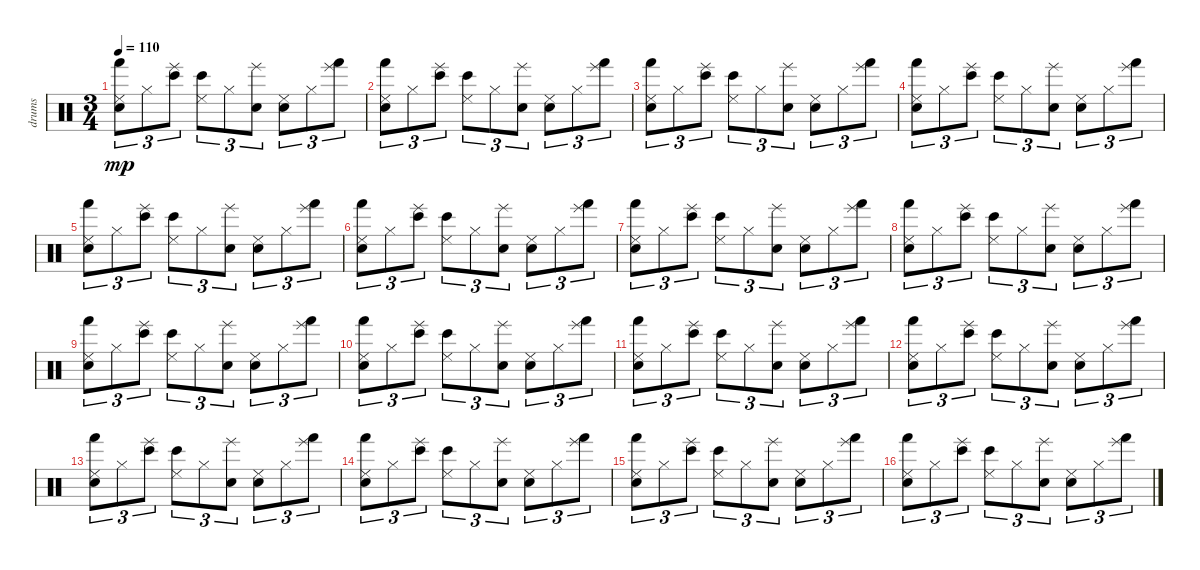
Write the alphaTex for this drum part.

\track ("drums" "drums") {instrument percussion}
\staff {score}
\articulation defaults
\ts (3 4)
\tempo 110
\clef neutral
\ks c
("Snare (hit)" "Hand (hit)" "Cowbell low (tip)").8{tu (3 2) dy mp} "Cowbell high (tip)".8{tu (3 2)} ("Bongo High (hit)" "Hand (slap)").8{tu (3 2)} ("Bongo High (hit)" "Cowbell low (tip)").8{tu (3 2)} "Cowbell high (tip)".8{tu (3 2)} ("Electric Snare (hit)" "Hand (slap)").8{tu (3 2)} ("Electric Snare (hit)" "Cowbell low (tip)").8{tu (3 2)} "Cowbell high (tip)".8{tu (3 2)} ("Hand (hit)" "Hand (slap)").8{tu (3 2)} |
("Snare (hit)" "Hand (hit)" "Cowbell low (tip)").8{tu (3 2)} "Cowbell high (tip)".8{tu (3 2)} ("Bongo High (hit)" "Hand (slap)").8{tu (3 2)} ("Bongo High (hit)" "Cowbell low (tip)").8{tu (3 2)} "Cowbell high (tip)".8{tu (3 2)} ("Electric Snare (hit)" "Hand (slap)").8{tu (3 2)} ("Electric Snare (hit)" "Cowbell low (tip)").8{tu (3 2)} "Cowbell high (tip)".8{tu (3 2)} ("Hand (hit)" "Hand (slap)").8{tu (3 2)} |
("Snare (hit)" "Hand (hit)" "Cowbell low (tip)").8{tu (3 2)} "Cowbell high (tip)".8{tu (3 2)} ("Bongo High (hit)" "Hand (slap)").8{tu (3 2)} ("Bongo High (hit)" "Cowbell low (tip)").8{tu (3 2)} "Cowbell high (tip)".8{tu (3 2)} ("Electric Snare (hit)" "Hand (slap)").8{tu (3 2)} ("Electric Snare (hit)" "Cowbell low (tip)").8{tu (3 2)} "Cowbell high (tip)".8{tu (3 2)} ("Hand (hit)" "Hand (slap)").8{tu (3 2)} |
("Snare (hit)" "Hand (hit)" "Cowbell low (tip)").8{tu (3 2)} "Cowbell high (tip)".8{tu (3 2)} ("Bongo High (hit)" "Hand (slap)").8{tu (3 2)} ("Bongo High (hit)" "Cowbell low (tip)").8{tu (3 2)} "Cowbell high (tip)".8{tu (3 2)} ("Electric Snare (hit)" "Hand (slap)").8{tu (3 2)} ("Electric Snare (hit)" "Cowbell low (tip)").8{tu (3 2)} "Cowbell high (tip)".8{tu (3 2)} ("Hand (hit)" "Hand (slap)").8{tu (3 2)} |
("Snare (hit)" "Hand (hit)" "Cowbell low (tip)").8{tu (3 2)} "Cowbell high (tip)".8{tu (3 2)} ("Bongo High (hit)" "Hand (slap)").8{tu (3 2)} ("Bongo High (hit)" "Cowbell low (tip)").8{tu (3 2)} "Cowbell high (tip)".8{tu (3 2)} ("Electric Snare (hit)" "Hand (slap)").8{tu (3 2)} ("Electric Snare (hit)" "Cowbell low (tip)").8{tu (3 2)} "Cowbell high (tip)".8{tu (3 2)} ("Hand (hit)" "Hand (slap)").8{tu (3 2)} |
("Snare (hit)" "Hand (hit)" "Cowbell low (tip)").8{tu (3 2)} "Cowbell high (tip)".8{tu (3 2)} ("Bongo High (hit)" "Hand (slap)").8{tu (3 2)} ("Bongo High (hit)" "Cowbell low (tip)").8{tu (3 2)} "Cowbell high (tip)".8{tu (3 2)} ("Electric Snare (hit)" "Hand (slap)").8{tu (3 2)} ("Electric Snare (hit)" "Cowbell low (tip)").8{tu (3 2)} "Cowbell high (tip)".8{tu (3 2)} ("Hand (hit)" "Hand (slap)").8{tu (3 2)} |
("Snare (hit)" "Hand (hit)" "Cowbell low (tip)").8{tu (3 2)} "Cowbell high (tip)".8{tu (3 2)} ("Bongo High (hit)" "Hand (slap)").8{tu (3 2)} ("Bongo High (hit)" "Cowbell low (tip)").8{tu (3 2)} "Cowbell high (tip)".8{tu (3 2)} ("Electric Snare (hit)" "Hand (slap)").8{tu (3 2)} ("Electric Snare (hit)" "Cowbell low (tip)").8{tu (3 2)} "Cowbell high (tip)".8{tu (3 2)} ("Hand (hit)" "Hand (slap)").8{tu (3 2)} |
("Snare (hit)" "Hand (hit)" "Cowbell low (tip)").8{tu (3 2)} "Cowbell high (tip)".8{tu (3 2)} ("Bongo High (hit)" "Hand (slap)").8{tu (3 2)} ("Bongo High (hit)" "Cowbell low (tip)").8{tu (3 2)} "Cowbell high (tip)".8{tu (3 2)} ("Electric Snare (hit)" "Hand (slap)").8{tu (3 2)} ("Electric Snare (hit)" "Cowbell low (tip)").8{tu (3 2)} "Cowbell high (tip)".8{tu (3 2)} ("Hand (hit)" "Hand (slap)").8{tu (3 2)} |
("Snare (hit)" "Hand (hit)" "Cowbell low (tip)").8{tu (3 2)} "Cowbell high (tip)".8{tu (3 2)} ("Bongo High (hit)" "Hand (slap)").8{tu (3 2)} ("Bongo High (hit)" "Cowbell low (tip)").8{tu (3 2)} "Cowbell high (tip)".8{tu (3 2)} ("Electric Snare (hit)" "Hand (slap)").8{tu (3 2)} ("Electric Snare (hit)" "Cowbell low (tip)").8{tu (3 2)} "Cowbell high (tip)".8{tu (3 2)} ("Hand (hit)" "Hand (slap)").8{tu (3 2)} |
("Snare (hit)" "Hand (hit)" "Cowbell low (tip)").8{tu (3 2)} "Cowbell high (tip)".8{tu (3 2)} ("Bongo High (hit)" "Hand (slap)").8{tu (3 2)} ("Bongo High (hit)" "Cowbell low (tip)").8{tu (3 2)} "Cowbell high (tip)".8{tu (3 2)} ("Electric Snare (hit)" "Hand (slap)").8{tu (3 2)} ("Electric Snare (hit)" "Cowbell low (tip)").8{tu (3 2)} "Cowbell high (tip)".8{tu (3 2)} ("Hand (hit)" "Hand (slap)").8{tu (3 2)} |
("Snare (hit)" "Hand (hit)" "Cowbell low (tip)").8{tu (3 2)} "Cowbell high (tip)".8{tu (3 2)} ("Bongo High (hit)" "Hand (slap)").8{tu (3 2)} ("Bongo High (hit)" "Cowbell low (tip)").8{tu (3 2)} "Cowbell high (tip)".8{tu (3 2)} ("Electric Snare (hit)" "Hand (slap)").8{tu (3 2)} ("Electric Snare (hit)" "Cowbell low (tip)").8{tu (3 2)} "Cowbell high (tip)".8{tu (3 2)} ("Hand (hit)" "Hand (slap)").8{tu (3 2)} |
("Snare (hit)" "Hand (hit)" "Cowbell low (tip)").8{tu (3 2)} "Cowbell high (tip)".8{tu (3 2)} ("Bongo High (hit)" "Hand (slap)").8{tu (3 2)} ("Bongo High (hit)" "Cowbell low (tip)").8{tu (3 2)} "Cowbell high (tip)".8{tu (3 2)} ("Electric Snare (hit)" "Hand (slap)").8{tu (3 2)} ("Electric Snare (hit)" "Cowbell low (tip)").8{tu (3 2)} "Cowbell high (tip)".8{tu (3 2)} ("Hand (hit)" "Hand (slap)").8{tu (3 2)} |
("Snare (hit)" "Hand (hit)" "Cowbell low (tip)").8{tu (3 2)} "Cowbell high (tip)".8{tu (3 2)} ("Bongo High (hit)" "Hand (slap)").8{tu (3 2)} ("Bongo High (hit)" "Cowbell low (tip)").8{tu (3 2)} "Cowbell high (tip)".8{tu (3 2)} ("Electric Snare (hit)" "Hand (slap)").8{tu (3 2)} ("Electric Snare (hit)" "Cowbell low (tip)").8{tu (3 2)} "Cowbell high (tip)".8{tu (3 2)} ("Hand (hit)" "Hand (slap)").8{tu (3 2)} |
("Snare (hit)" "Hand (hit)" "Cowbell low (tip)").8{tu (3 2) volume 12} "Cowbell high (tip)".8{tu (3 2)} ("Bongo High (hit)" "Hand (slap)").8{tu (3 2)} ("Bongo High (hit)" "Cowbell low (tip)").8{tu (3 2)} "Cowbell high (tip)".8{tu (3 2)} ("Electric Snare (hit)" "Hand (slap)").8{tu (3 2)} ("Electric Snare (hit)" "Cowbell low (tip)").8{tu (3 2)} "Cowbell high (tip)".8{tu (3 2)} ("Hand (hit)" "Hand (slap)").8{tu (3 2)} |
("Snare (hit)" "Hand (hit)" "Cowbell low (tip)").8{tu (3 2)} "Cowbell high (tip)".8{tu (3 2)} ("Bongo High (hit)" "Hand (slap)").8{tu (3 2)} ("Bongo High (hit)" "Cowbell low (tip)").8{tu (3 2)} "Cowbell high (tip)".8{tu (3 2)} ("Electric Snare (hit)" "Hand (slap)").8{tu (3 2)} ("Electric Snare (hit)" "Cowbell low (tip)").8{tu (3 2)} "Cowbell high (tip)".8{tu (3 2)} ("Hand (hit)" "Hand (slap)").8{tu (3 2)} |
("Snare (hit)" "Hand (hit)" "Cowbell low (tip)").8{tu (3 2)} "Cowbell high (tip)".8{tu (3 2)} ("Bongo High (hit)" "Hand (slap)").8{tu (3 2)} ("Bongo High (hit)" "Cowbell low (tip)").8{tu (3 2)} "Cowbell high (tip)".8{tu (3 2)} ("Electric Snare (hit)" "Hand (slap)").8{tu (3 2)} ("Electric Snare (hit)" "Cowbell low (tip)").8{tu (3 2)} "Cowbell high (tip)".8{tu (3 2)} ("Hand (hit)" "Hand (slap)").8{tu (3 2)}
